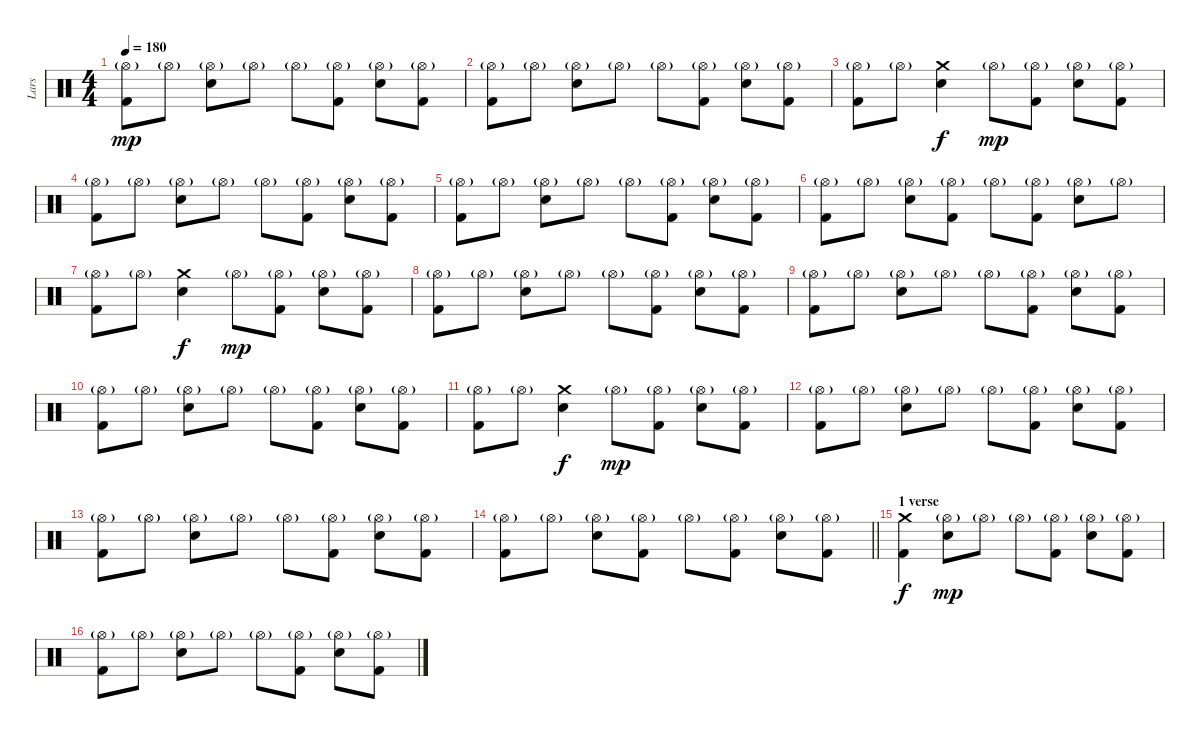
\track ("Lars" "Lars") {instrument percussion}
\staff {score}
\articulation defaults
\ts (4 4)
\tempo 180
\clef neutral
\ks c
("Hi-Hat (open)"{g} "Kick (hit) 2").8{dy mp} "Hi-Hat (open)"{g}.8 ("Hi-Hat (open)"{g} "Electric Snare (hit)").8 "Hi-Hat (open)"{g}.8 "Hi-Hat (open)"{g}.8 ("Hi-Hat (open)"{g} "Kick (hit) 2").8 ("Hi-Hat (open)"{g} "Electric Snare (hit)").8 ("Hi-Hat (open)"{g} "Kick (hit) 2").8 |
("Hi-Hat (open)"{g} "Kick (hit) 2").8 "Hi-Hat (open)"{g}.8 ("Hi-Hat (open)"{g} "Electric Snare (hit)").8 "Hi-Hat (open)"{g}.8 "Hi-Hat (open)"{g}.8 ("Hi-Hat (open)"{g} "Kick (hit) 2").8 ("Hi-Hat (open)"{g} "Electric Snare (hit)").8 ("Hi-Hat (open)"{g} "Kick (hit) 2").8 |
("Hi-Hat (open)"{g} "Kick (hit) 2").8 "Hi-Hat (open)"{g}.8 ("Crash medium (hit)" "Electric Snare (hit)").4{dy f} "Hi-Hat (open)"{g}.8{dy mp} ("Hi-Hat (open)"{g} "Kick (hit) 2").8 ("Hi-Hat (open)"{g} "Electric Snare (hit)").8 ("Hi-Hat (open)"{g} "Kick (hit) 2").8 |
("Hi-Hat (open)"{g} "Kick (hit) 2").8 "Hi-Hat (open)"{g}.8 ("Hi-Hat (open)"{g} "Electric Snare (hit)").8 "Hi-Hat (open)"{g}.8 "Hi-Hat (open)"{g}.8 ("Hi-Hat (open)"{g} "Kick (hit) 2").8 ("Hi-Hat (open)"{g} "Electric Snare (hit)").8 ("Hi-Hat (open)"{g} "Kick (hit) 2").8 |
("Hi-Hat (open)"{g} "Kick (hit) 2").8 "Hi-Hat (open)"{g}.8 ("Hi-Hat (open)"{g} "Electric Snare (hit)").8 "Hi-Hat (open)"{g}.8 "Hi-Hat (open)"{g}.8 ("Hi-Hat (open)"{g} "Kick (hit) 2").8 ("Hi-Hat (open)"{g} "Electric Snare (hit)").8 ("Hi-Hat (open)"{g} "Kick (hit) 2").8 |
("Hi-Hat (open)"{g} "Kick (hit) 2").8 "Hi-Hat (open)"{g}.8 ("Hi-Hat (open)"{g} "Electric Snare (hit)").8 ("Hi-Hat (open)"{g} "Kick (hit) 2").8 "Hi-Hat (open)"{g}.8 ("Hi-Hat (open)"{g} "Kick (hit) 2").8 ("Hi-Hat (open)"{g} "Electric Snare (hit)").8 "Hi-Hat (open)"{g}.8 |
("Hi-Hat (open)"{g} "Kick (hit) 2").8 "Hi-Hat (open)"{g}.8 ("Crash medium (hit)" "Electric Snare (hit)").4{dy f} "Hi-Hat (open)"{g}.8{dy mp} ("Hi-Hat (open)"{g} "Kick (hit) 2").8 ("Hi-Hat (open)"{g} "Electric Snare (hit)").8 ("Hi-Hat (open)"{g} "Kick (hit) 2").8 |
("Hi-Hat (open)"{g} "Kick (hit) 2").8 "Hi-Hat (open)"{g}.8 ("Hi-Hat (open)"{g} "Electric Snare (hit)").8 "Hi-Hat (open)"{g}.8 "Hi-Hat (open)"{g}.8 ("Hi-Hat (open)"{g} "Kick (hit) 2").8 ("Hi-Hat (open)"{g} "Electric Snare (hit)").8 ("Hi-Hat (open)"{g} "Kick (hit) 2").8 |
("Hi-Hat (open)"{g} "Kick (hit) 2").8 "Hi-Hat (open)"{g}.8 ("Hi-Hat (open)"{g} "Electric Snare (hit)").8 "Hi-Hat (open)"{g}.8 "Hi-Hat (open)"{g}.8 ("Hi-Hat (open)"{g} "Kick (hit) 2").8 ("Hi-Hat (open)"{g} "Electric Snare (hit)").8 ("Hi-Hat (open)"{g} "Kick (hit) 2").8 |
("Hi-Hat (open)"{g} "Kick (hit) 2").8 "Hi-Hat (open)"{g}.8 ("Hi-Hat (open)"{g} "Electric Snare (hit)").8 "Hi-Hat (open)"{g}.8 "Hi-Hat (open)"{g}.8 ("Hi-Hat (open)"{g} "Kick (hit) 2").8 ("Hi-Hat (open)"{g} "Electric Snare (hit)").8 ("Hi-Hat (open)"{g} "Kick (hit) 2").8 |
("Hi-Hat (open)"{g} "Kick (hit) 2").8 "Hi-Hat (open)"{g}.8 ("Crash medium (hit)" "Electric Snare (hit)").4{dy f} "Hi-Hat (open)"{g}.8{dy mp} ("Hi-Hat (open)"{g} "Kick (hit) 2").8 ("Hi-Hat (open)"{g} "Electric Snare (hit)").8 ("Hi-Hat (open)"{g} "Kick (hit) 2").8 |
("Hi-Hat (open)"{g} "Kick (hit) 2").8 "Hi-Hat (open)"{g}.8 ("Hi-Hat (open)"{g} "Electric Snare (hit)").8 "Hi-Hat (open)"{g}.8 "Hi-Hat (open)"{g}.8 ("Hi-Hat (open)"{g} "Kick (hit) 2").8 ("Hi-Hat (open)"{g} "Electric Snare (hit)").8 ("Hi-Hat (open)"{g} "Kick (hit) 2").8 |
("Hi-Hat (open)"{g} "Kick (hit) 2").8 "Hi-Hat (open)"{g}.8 ("Hi-Hat (open)"{g} "Electric Snare (hit)").8 "Hi-Hat (open)"{g}.8 "Hi-Hat (open)"{g}.8 ("Hi-Hat (open)"{g} "Kick (hit) 2").8 ("Hi-Hat (open)"{g} "Electric Snare (hit)").8 ("Hi-Hat (open)"{g} "Kick (hit) 2").8 |
\barLineRight lightlight
("Hi-Hat (open)"{g} "Kick (hit) 2").8 "Hi-Hat (open)"{g}.8 ("Hi-Hat (open)"{g} "Electric Snare (hit)").8 ("Hi-Hat (open)"{g} "Kick (hit) 2").8 "Hi-Hat (open)"{g}.8 ("Hi-Hat (open)"{g} "Kick (hit) 2").8 ("Hi-Hat (open)"{g} "Electric Snare (hit)").8 ("Hi-Hat (open)"{g} "Kick (hit) 2").8 |
\section ("" "1 verse")
("Crash medium (hit)" "Kick (hit) 2").4{dy f} ("Hi-Hat (open)"{g} "Electric Snare (hit)").8{dy mp} "Hi-Hat (open)"{g}.8 "Hi-Hat (open)"{g}.8 ("Hi-Hat (open)"{g} "Kick (hit) 2").8 ("Hi-Hat (open)"{g} "Electric Snare (hit)").8 ("Hi-Hat (open)"{g} "Kick (hit) 2").8 |
("Hi-Hat (open)"{g} "Kick (hit) 2").8 "Hi-Hat (open)"{g}.8 ("Hi-Hat (open)"{g} "Electric Snare (hit)").8 "Hi-Hat (open)"{g}.8 "Hi-Hat (open)"{g}.8 ("Hi-Hat (open)"{g} "Kick (hit) 2").8 ("Hi-Hat (open)"{g} "Electric Snare (hit)").8 ("Hi-Hat (open)"{g} "Kick (hit) 2").8
